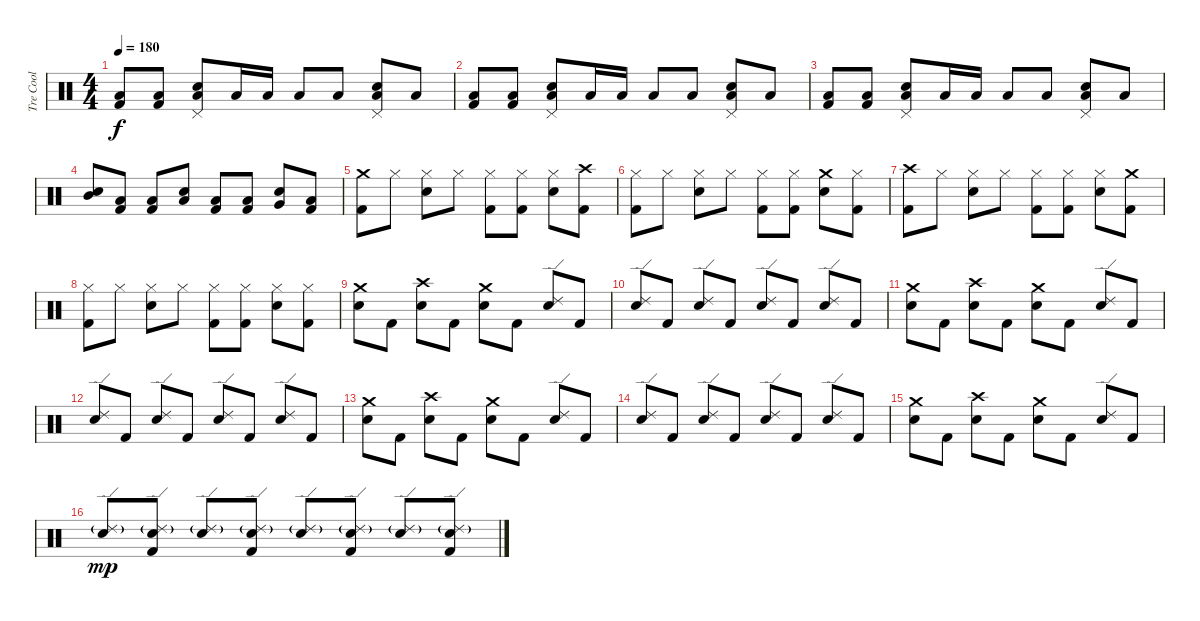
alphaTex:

\track ("Tre Cool" "Tre Cool") {instrument percussion}
\staff {score}
\articulation defaults
\ts (4 4)
\tempo 180
\clef neutral
\ks c
("Kick (hit) 2" "Low Floor Tom (hit)").8{dy f} ("Kick (hit) 2" "Low Floor Tom (hit)").8 ("Snare (hit) 2" "Low Floor Tom (hit)" "Pedal Hi-Hat (hit)").8 "Low Floor Tom (hit)".16 "Low Floor Tom (hit)".16 "Low Floor Tom (hit)".8 "Low Floor Tom (hit)".8 ("Snare (hit) 2" "Low Floor Tom (hit)" "Pedal Hi-Hat (hit)").8 "Low Floor Tom (hit)".8 |
("Kick (hit) 2" "Low Floor Tom (hit)").8 ("Kick (hit) 2" "Low Floor Tom (hit)").8 ("Snare (hit) 2" "Low Floor Tom (hit)" "Pedal Hi-Hat (hit)").8 "Low Floor Tom (hit)".16 "Low Floor Tom (hit)".16 "Low Floor Tom (hit)".8 "Low Floor Tom (hit)".8 ("Snare (hit) 2" "Low Floor Tom (hit)" "Pedal Hi-Hat (hit)").8 "Low Floor Tom (hit)".8 |
("Kick (hit) 2" "Low Floor Tom (hit)").8 ("Kick (hit) 2" "Low Floor Tom (hit)").8 ("Snare (hit) 2" "Low Floor Tom (hit)" "Pedal Hi-Hat (hit)").8 "Low Floor Tom (hit)".16 "Low Floor Tom (hit)".16 "Low Floor Tom (hit)".8 "Low Floor Tom (hit)".8 ("Snare (hit) 2" "Low Floor Tom (hit)" "Pedal Hi-Hat (hit)").8 "Low Floor Tom (hit)".8 |
("Mid Tom (hit)" "Snare (hit) 2").8 ("Low Floor Tom (hit)" "Kick (hit) 2").8 ("Low Floor Tom (hit)" "Kick (hit) 2").8 ("Low Tom (hit)" "Snare (hit) 2").8 ("Low Floor Tom (hit)" "Kick (hit) 2").8 ("Low Floor Tom (hit)" "Kick (hit) 2").8 ("Very Low Tom (hit)" "Snare (hit) 2").8 ("Low Floor Tom (hit)" "Kick (hit) 2").8 |
("Kick (hit) 2" "Crash medium (hit)").8 "Hi-Hat (closed)".8 ("Snare (hit) 2" "Hi-Hat (closed)").8 "Hi-Hat (closed)".8 ("Kick (hit) 2" "Hi-Hat (closed)").8 ("Kick (hit) 2" "Hi-Hat (closed)").8 ("Snare (hit) 2" "Hi-Hat (closed)").8 ("Kick (hit) 2" "Crash high (hit)").8 |
("Kick (hit) 2" "Hi-Hat (closed)").8 "Hi-Hat (closed)".8 ("Snare (hit) 2" "Hi-Hat (closed)").8 "Hi-Hat (closed)".8 ("Kick (hit) 2" "Hi-Hat (closed)").8 ("Kick (hit) 2" "Hi-Hat (closed)").8 ("Snare (hit) 2" "Crash medium (hit)").8 ("Kick (hit) 2" "Hi-Hat (closed)").8 |
("Kick (hit) 2" "Crash high (hit)").8 "Hi-Hat (closed)".8 ("Snare (hit) 2" "Hi-Hat (closed)").8 "Hi-Hat (closed)".8 ("Kick (hit) 2" "Hi-Hat (closed)").8 ("Kick (hit) 2" "Hi-Hat (closed)").8 ("Snare (hit) 2" "Hi-Hat (closed)").8 ("Kick (hit) 2" "Crash medium (hit)").8 |
("Kick (hit) 2" "Hi-Hat (closed)").8 "Hi-Hat (closed)".8 ("Snare (hit) 2" "Hi-Hat (closed)").8 "Hi-Hat (closed)".8 ("Kick (hit) 2" "Hi-Hat (closed)").8 ("Kick (hit) 2" "Hi-Hat (closed)").8 ("Snare (hit) 2" "Hi-Hat (closed)").8 ("Kick (hit) 2" "Hi-Hat (closed)").8 |
("Snare (hit) 2" "Crash medium (hit)").8 "Kick (hit) 2".8 ("Snare (hit) 2" "Crash high (hit)").8 "Kick (hit) 2".8 ("Snare (hit) 2" "Crash medium (hit)").8 "Kick (hit) 2".8 ("Snare (hit) 2" "Ride (edge) 2").8 "Kick (hit) 2".8 |
("Snare (hit) 2" "Ride (edge) 2").8 "Kick (hit) 2".8 ("Snare (hit) 2" "Ride (edge) 2").8 "Kick (hit) 2".8 ("Snare (hit) 2" "Ride (edge) 2").8 "Kick (hit) 2".8 ("Snare (hit) 2" "Ride (edge) 2").8 "Kick (hit) 2".8 |
("Snare (hit) 2" "Crash medium (hit)").8 "Kick (hit) 2".8 ("Snare (hit) 2" "Crash high (hit)").8 "Kick (hit) 2".8 ("Snare (hit) 2" "Crash medium (hit)").8 "Kick (hit) 2".8 ("Snare (hit) 2" "Ride (edge) 2").8 "Kick (hit) 2".8 |
("Snare (hit) 2" "Ride (edge) 2").8 "Kick (hit) 2".8 ("Snare (hit) 2" "Ride (edge) 2").8 "Kick (hit) 2".8 ("Snare (hit) 2" "Ride (edge) 2").8 "Kick (hit) 2".8 ("Snare (hit) 2" "Ride (edge) 2").8 "Kick (hit) 2".8 |
("Snare (hit) 2" "Crash medium (hit)").8 "Kick (hit) 2".8 ("Snare (hit) 2" "Crash high (hit)").8 "Kick (hit) 2".8 ("Snare (hit) 2" "Crash medium (hit)").8 "Kick (hit) 2".8 ("Snare (hit) 2" "Ride (edge) 2").8 "Kick (hit) 2".8 |
("Snare (hit) 2" "Ride (edge) 2").8 "Kick (hit) 2".8 ("Snare (hit) 2" "Ride (edge) 2").8 "Kick (hit) 2".8 ("Snare (hit) 2" "Ride (edge) 2").8 "Kick (hit) 2".8 ("Snare (hit) 2" "Ride (edge) 2").8 "Kick (hit) 2".8 |
("Snare (hit) 2" "Crash medium (hit)").8 "Kick (hit) 2".8 ("Snare (hit) 2" "Crash high (hit)").8 "Kick (hit) 2".8 ("Snare (hit) 2" "Crash medium (hit)").8 "Kick (hit) 2".8 ("Snare (hit) 2" "Ride (edge) 2").8 "Kick (hit) 2".8 |
("Ride (edge) 2"{g} "Snare (hit) 2").8{dy mp} ("Kick (hit) 2" "Ride (edge) 2"{g} "Snare (hit) 2").8 ("Ride (edge) 2"{g} "Snare (hit) 2").8 ("Kick (hit) 2" "Ride (edge) 2"{g} "Snare (hit) 2").8 ("Ride (edge) 2"{g} "Snare (hit) 2").8 ("Kick (hit) 2" "Ride (edge) 2"{g} "Snare (hit) 2").8 ("Ride (edge) 2"{g} "Snare (hit) 2").8 ("Kick (hit) 2" "Ride (edge) 2"{g} "Snare (hit) 2").8
